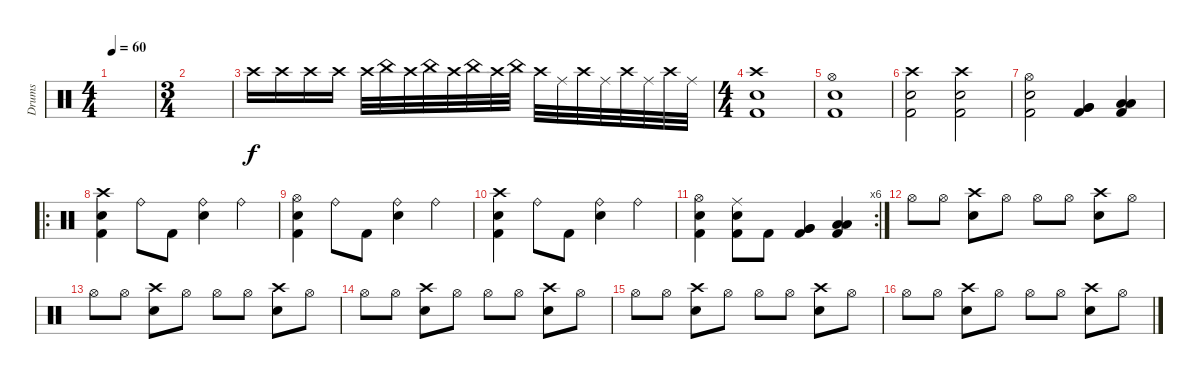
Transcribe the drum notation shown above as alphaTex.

\track ("Drums" "Drums") {instrument percussion}
\staff {score}
\articulation defaults
\ts (4 4)
\tempo 60
\clef neutral
\ks c
|
\ts (3 4)
|
"Crash high (hit)".16 "Crash high (hit)".16 "Crash high (hit)".16 "Crash high (hit)".16 "Crash high (hit)".32 "China (hit)".32 "Crash high (hit)".32 "China (hit)".32 "Crash high (hit)".32 "China (hit)".32 "Crash high (hit)".32 "China (hit)".32 "Crash high (hit)".32 "Ride (middle)".32 "Crash high (hit)".32 "Ride (middle)".32 "Crash high (hit)".32 "Ride (middle)".32 "Crash high (hit)".32 "Ride (middle)".32 |
\ts (4 4)
("Kick (hit) 2" "Electric Snare (hit)" "Crash high (hit)").1{dy f} |
("Kick (hit) 2" "Electric Snare (hit)" "Hi-Hat (open)").1 |
("Kick (hit) 2" "Electric Snare (hit)" "Crash high (hit)").2 ("Kick (hit) 2" "Electric Snare (hit)" "Crash high (hit)").2 |
("Kick (hit) 2" "Electric Snare (hit)" "Hi-Hat (open)").2 ("Kick (hit) 2" "Very Low Tom (hit)" "Very Low Tom (hit)").4 ("Kick (hit) 2" "Low Floor Tom (hit)" "Low Floor Tom (hit)").4 |
\ro
("Kick (hit) 2" "Electric Snare (hit)" "Crash high (hit)").4 "Ride (bell)".8 "Kick (hit) 2".8 ("Electric Snare (hit)" "Ride (bell)").4 "Ride (bell)".4 |
("Kick (hit) 2" "Electric Snare (hit)" "Hi-Hat (open)").4 "Ride (bell)".8 "Kick (hit) 2".8 ("Electric Snare (hit)" "Ride (bell)").4 "Ride (bell)".4 |
("Kick (hit) 2" "Electric Snare (hit)" "Crash high (hit)").4 "Ride (bell)".8 "Kick (hit) 2".8 ("Electric Snare (hit)" "Ride (bell)").4 "Ride (bell)".4 |
\rc 6
("Kick (hit) 2" "Electric Snare (hit)" "Hi-Hat (open)").4 ("Kick (hit) 2" "Electric Snare (hit)" "Ride (middle)").8 "Kick (hit) 2".8 ("Kick (hit) 2" "Very Low Tom (hit)" "Very Low Tom (hit)").4 ("Kick (hit) 2" "Low Floor Tom (hit)" "Low Floor Tom (hit)").4 |
"Hi-Hat (open)".8 "Hi-Hat (open)".8 ("Electric Snare (hit)" "Crash high (hit)").8 "Hi-Hat (open)".8 "Hi-Hat (open)".8 "Hi-Hat (open)".8 ("Electric Snare (hit)" "Crash high (hit)").8 "Hi-Hat (open)".8 |
"Hi-Hat (open)".8 "Hi-Hat (open)".8 ("Electric Snare (hit)" "Crash high (hit)").8 "Hi-Hat (open)".8 "Hi-Hat (open)".8 "Hi-Hat (open)".8 ("Electric Snare (hit)" "Crash high (hit)").8 "Hi-Hat (open)".8 |
"Hi-Hat (open)".8 "Hi-Hat (open)".8 ("Electric Snare (hit)" "Crash high (hit)").8 "Hi-Hat (open)".8 "Hi-Hat (open)".8 "Hi-Hat (open)".8 ("Electric Snare (hit)" "Crash high (hit)").8 "Hi-Hat (open)".8 |
"Hi-Hat (open)".8 "Hi-Hat (open)".8 ("Electric Snare (hit)" "Crash high (hit)").8 "Hi-Hat (open)".8 "Hi-Hat (open)".8 "Hi-Hat (open)".8 ("Electric Snare (hit)" "Crash high (hit)").8 "Hi-Hat (open)".8 |
"Hi-Hat (open)".8 "Hi-Hat (open)".8 ("Electric Snare (hit)" "Crash high (hit)").8 "Hi-Hat (open)".8 "Hi-Hat (open)".8 "Hi-Hat (open)".8 ("Electric Snare (hit)" "Crash high (hit)").8 "Hi-Hat (open)".8
